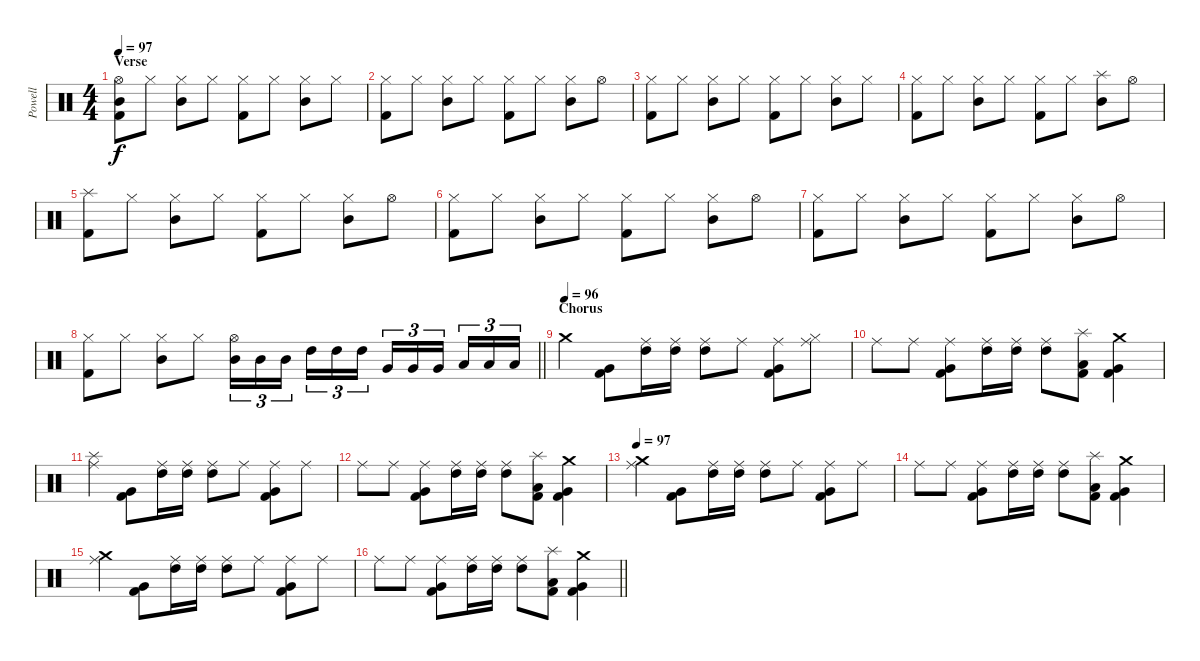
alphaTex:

\track ("Powell" "Powell") {instrument percussion}
\staff {score}
\articulation defaults
\ts (4 4)
\section ("" "Verse")
\tempo 97
\clef neutral
\ks c
("Hi-Hat (open)" "Mid Tom (hit)" "Kick (hit) 2").8{dy f} "Hi-Hat (closed)".8 ("Hi-Hat (closed)" "Mid Tom (hit)").8 "Hi-Hat (closed)".8 ("Hi-Hat (closed)" "Kick (hit) 2").8 "Hi-Hat (closed)".8 ("Hi-Hat (closed)" "Mid Tom (hit)").8 "Hi-Hat (closed)".8 |
("Hi-Hat (closed)" "Kick (hit) 2").8 "Hi-Hat (closed)".8 ("Hi-Hat (closed)" "Mid Tom (hit)").8 "Hi-Hat (closed)".8 ("Hi-Hat (closed)" "Kick (hit) 2").8 "Hi-Hat (closed)".8 ("Hi-Hat (closed)" "Mid Tom (hit)").8 "Hi-Hat (open)".8 |
("Hi-Hat (closed)" "Kick (hit) 2").8 "Hi-Hat (closed)".8 ("Hi-Hat (closed)" "Mid Tom (hit)").8 "Hi-Hat (closed)".8 ("Hi-Hat (closed)" "Kick (hit) 2").8 "Hi-Hat (closed)".8 ("Hi-Hat (closed)" "Mid Tom (hit)").8 "Hi-Hat (closed)".8 |
("Hi-Hat (closed)" "Kick (hit) 2").8 "Hi-Hat (closed)".8 ("Hi-Hat (closed)" "Mid Tom (hit)").8 "Hi-Hat (closed)".8 ("Hi-Hat (closed)" "Kick (hit) 2").8 "Hi-Hat (closed)".8 ("Splash (hit)" "Mid Tom (hit)").8 "Hi-Hat (open)".8 |
("Splash (hit)" "Kick (hit) 2").8 "Hi-Hat (closed)".8 ("Hi-Hat (closed)" "Mid Tom (hit)").8 "Hi-Hat (closed)".8 ("Hi-Hat (closed)" "Kick (hit) 2").8 "Hi-Hat (closed)".8 ("Hi-Hat (closed)" "Mid Tom (hit)").8 "Hi-Hat (open)".8 |
("Hi-Hat (closed)" "Kick (hit) 2").8 "Hi-Hat (closed)".8 ("Hi-Hat (closed)" "Mid Tom (hit)").8 "Hi-Hat (closed)".8 ("Hi-Hat (closed)" "Kick (hit) 2").8 "Hi-Hat (closed)".8 ("Hi-Hat (closed)" "Mid Tom (hit)").8 "Hi-Hat (open)".8 |
("Hi-Hat (closed)" "Kick (hit) 2").8 "Hi-Hat (closed)".8 ("Hi-Hat (closed)" "Mid Tom (hit)").8 "Hi-Hat (closed)".8 ("Hi-Hat (closed)" "Kick (hit) 2").8 "Hi-Hat (closed)".8 ("Hi-Hat (closed)" "Mid Tom (hit)").8 "Hi-Hat (open)".8 |
\barLineRight lightlight
("Hi-Hat (closed)" "Kick (hit) 2").8 "Hi-Hat (closed)".8 ("Hi-Hat (closed)" "Mid Tom (hit)").8 "Hi-Hat (closed)".8 ("Hi-Hat (open)" "Mid Tom (hit)").16{tu (3 2)} "Mid Tom (hit)".16{tu (3 2)} "Mid Tom (hit)".16{tu (3 2) beam splitsecondary} "High Tom (hit)".16{tu (3 2)} "High Tom (hit)".16{tu (3 2)} "High Tom (hit)".16{tu (3 2)} "Very Low Tom (hit)".16{tu (3 2)} "Very Low Tom (hit)".16{tu (3 2)} "Very Low Tom (hit)".16{tu (3 2) beam splitsecondary} "Low Tom (hit)".16{tu (3 2)} "Low Tom (hit)".16{tu (3 2)} "Low Tom (hit)".16{tu (3 2)} |
\section ("" "Chorus")
\tempo (96)
"Crash medium (hit)".4 ("Very Low Tom (hit)" "Kick (hit) 2").8 ("Ride (middle)" "High Tom (hit)").16 ("Ride (middle)" "High Tom (hit)").16 ("Ride (middle)" "High Tom (hit)").8 "Ride (middle)".8 ("Ride (middle)" "Very Low Tom (hit)" "Kick (hit) 2").8 ("Ride (middle)" "Hi-Hat (closed)").8 |
"Ride (middle)".8 "Ride (middle)".8 ("Ride (middle)" "Very Low Tom (hit)" "Kick (hit) 2").8 ("Ride (middle)" "High Tom (hit)").16 ("Ride (middle)" "High Tom (hit)").16 ("Ride (middle)" "High Tom (hit)").8 ("Splash (hit)" "Low Tom (hit)" "Kick (hit) 2").8 ("Crash medium (hit)" "Very Low Tom (hit)" "Kick (hit) 2").4 |
("Splash (hit)" "Ride (middle)").4 ("Very Low Tom (hit)" "Kick (hit) 2").8 ("Ride (middle)" "High Tom (hit)").16 ("Ride (middle)" "High Tom (hit)").16 ("Ride (middle)" "High Tom (hit)").8 "Ride (middle)".8 ("Ride (middle)" "Very Low Tom (hit)" "Kick (hit) 2").8 "Ride (middle)".8 |
"Ride (middle)".8 "Ride (middle)".8 ("Ride (middle)" "Very Low Tom (hit)" "Kick (hit) 2").8 ("Ride (middle)" "High Tom (hit)").16 ("Ride (middle)" "High Tom (hit)").16 ("Ride (middle)" "High Tom (hit)").8 ("Splash (hit)" "Low Tom (hit)" "Kick (hit) 2").8 ("Crash medium (hit)" "Very Low Tom (hit)" "Kick (hit) 2").4 |
\tempo 97
("Crash medium (hit)" "Ride (middle)").4 ("Very Low Tom (hit)" "Kick (hit) 2").8 ("Ride (middle)" "High Tom (hit)").16 ("Ride (middle)" "High Tom (hit)").16 ("Ride (middle)" "High Tom (hit)").8 "Ride (middle)".8 ("Ride (middle)" "Very Low Tom (hit)" "Kick (hit) 2").8 "Ride (middle)".8 |
"Ride (middle)".8 "Ride (middle)".8 ("Ride (middle)" "Very Low Tom (hit)" "Kick (hit) 2").8 ("Ride (middle)" "High Tom (hit)").16 ("Ride (middle)" "High Tom (hit)").16 ("Ride (middle)" "High Tom (hit)").8 ("Splash (hit)" "Low Tom (hit)" "Kick (hit) 2").8 ("Crash medium (hit)" "Very Low Tom (hit)" "Kick (hit) 2").4 |
("Crash medium (hit)" "Ride (middle)").4 ("Very Low Tom (hit)" "Kick (hit) 2").8 ("Ride (middle)" "High Tom (hit)").16 ("Ride (middle)" "High Tom (hit)").16 ("Ride (middle)" "High Tom (hit)").8 "Ride (middle)".8 ("Ride (middle)" "Very Low Tom (hit)" "Kick (hit) 2").8 "Ride (middle)".8 |
\barLineRight lightlight "Ride (middle)".8 "Ride (middle)".8
("Ride (middle)" "Very Low Tom (hit)" "Kick (hit) 2").8 ("Ride (middle)" "High Tom (hit)").16 ("Ride (middle)" "High Tom (hit)").16 ("Ride (middle)" "High Tom (hit)").8 ("Splash (hit)" "Low Tom (hit)" "Kick (hit) 2").8 ("Crash medium (hit)" "Very Low Tom (hit)" "Kick (hit) 2").4
